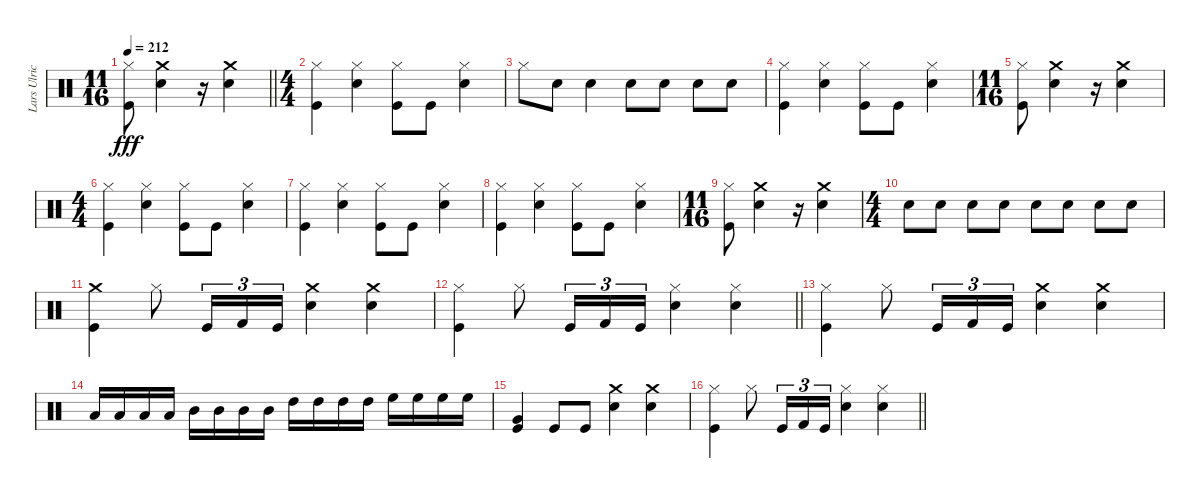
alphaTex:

\track ("Lars Ulrich" "Lars Ulric") {instrument percussion}
\staff {score}
\articulation defaults
\ts (11 16)
\tempo 212
\clef neutral
\barLineRight lightlight
\ks c
("Kick (hit)" "Hi-Hat (closed)").8{dy fff} ("Crash medium (hit)" "Snare (hit) 2").4 r.16 ("Crash medium (hit)" "Snare (hit) 2").4 |
\ts (4 4)
("Kick (hit)" "Hi-Hat (closed)").4 ("Hi-Hat (closed)" "Snare (hit) 2").4 ("Kick (hit)" "Hi-Hat (closed)").8 "Kick (hit)".8 ("Snare (hit) 2" "Hi-Hat (closed)").4 |
"Hi-Hat (closed)".8 "Snare (hit) 2".8 "Snare (hit) 2".4 "Snare (hit) 2".8 "Snare (hit) 2".8 "Snare (hit) 2".8 "Snare (hit) 2".8 |
("Hi-Hat (closed)" "Kick (hit)").4 ("Snare (hit) 2" "Hi-Hat (closed)").4 ("Kick (hit)" "Hi-Hat (closed)").8 "Kick (hit)".8 ("Snare (hit) 2" "Hi-Hat (closed)").4 |
\ts (11 16)
("Kick (hit)" "Hi-Hat (closed)").8 ("Snare (hit) 2" "Crash medium (hit)").4 r.16 ("Crash medium (hit)" "Snare (hit) 2").4 |
\ts (4 4)
("Hi-Hat (closed)" "Kick (hit)").4 ("Snare (hit) 2" "Hi-Hat (closed)").4 ("Kick (hit)" "Hi-Hat (closed)").8 "Kick (hit)".8 ("Snare (hit) 2" "Hi-Hat (closed)").4 |
("Kick (hit)" "Hi-Hat (closed)").4 ("Snare (hit) 2" "Hi-Hat (closed)").4 ("Hi-Hat (closed)" "Kick (hit)").8 "Kick (hit)".8 ("Snare (hit) 2" "Hi-Hat (closed)").4 |
("Kick (hit)" "Hi-Hat (closed)").4 ("Snare (hit) 2" "Hi-Hat (closed)").4 ("Kick (hit)" "Hi-Hat (closed)").8 "Kick (hit)".8 ("Hi-Hat (closed)" "Snare (hit) 2").4 |
\ts (11 16)
("Kick (hit)" "Hi-Hat (closed)").8 ("Crash medium (hit)" "Snare (hit) 2").4 r.16 ("Crash medium (hit)" "Snare (hit) 2").4 |
\ts (4 4)
"Snare (hit) 2".8 "Snare (hit) 2".8 "Snare (hit) 2".8 "Snare (hit) 2".8 "Snare (hit) 2".8 "Snare (hit) 2".8 "Snare (hit) 2".8 "Snare (hit) 2".8 |
("Crash medium (hit)" "Kick (hit)").4 "Hi-Hat (closed)".8 "Kick (hit)".16{tu (3 2)} "Kick (hit) 2".16{tu (3 2)} "Kick (hit)".16{tu (3 2)} ("Crash medium (hit)" "Snare (hit) 2").4 ("Crash medium (hit)" "Snare (hit) 2").4 |
\barLineRight lightlight
("Hi-Hat (closed)" "Kick (hit)").4 "Hi-Hat (closed)".8 "Kick (hit)".16{tu (3 2)} "Kick (hit) 2".16{tu (3 2)} "Kick (hit)".16{tu (3 2)} ("Snare (hit) 2" "Hi-Hat (closed)").4 ("Snare (hit) 2" "Hi-Hat (closed)").4 |
("Kick (hit)" "Hi-Hat (closed)").4 "Hi-Hat (closed)".8 "Kick (hit)".16{tu (3 2)} "Kick (hit) 2".16{tu (3 2)} "Kick (hit)".16{tu (3 2)} ("Crash medium (hit)" "Snare (hit) 2").4 ("Crash medium (hit)" "Snare (hit) 2").4 |
"Low Tom (hit)".16 "Low Tom (hit)".16 "Low Tom (hit)".16 "Low Tom (hit)".16 "Mid Tom (hit)".16 "Mid Tom (hit)".16 "Mid Tom (hit)".16 "Mid Tom (hit)".16 "High Tom (hit)".16 "High Tom (hit)".16 "High Tom (hit)".16 "High Tom (hit)".16 "High Floor Tom (hit)".16 "High Floor Tom (hit)".16 "High Floor Tom (hit)".16 "High Floor Tom (hit)".16 |
("Kick (hit)" "Very Low Tom (hit)").4 "Kick (hit)".8 "Kick (hit)".8 ("Snare (hit) 2" "Crash medium (hit)").4 ("Crash medium (hit)" "Snare (hit) 2").4 |
\barLineRight lightlight
("Kick (hit)" "Hi-Hat (closed)").4 "Hi-Hat (closed)".8 "Kick (hit)".16{tu (3 2)} "Kick (hit) 2".16{tu (3 2)} "Kick (hit)".16{tu (3 2)} ("Snare (hit) 2" "Hi-Hat (closed)").4 ("Hi-Hat (closed)" "Snare (hit) 2").4
